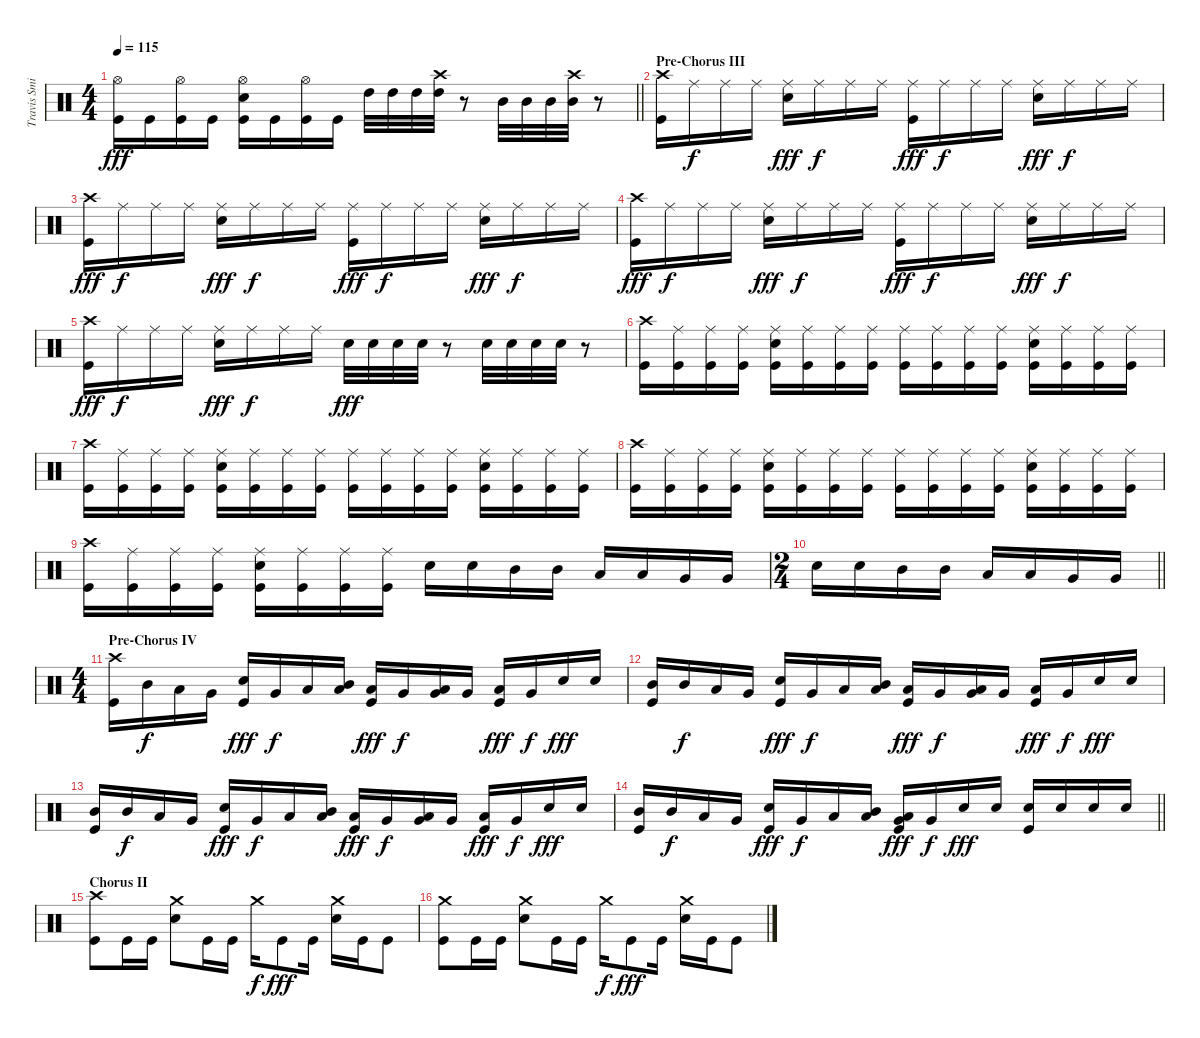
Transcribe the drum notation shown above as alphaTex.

\track ("Travis Smith" "Travis Smi") {instrument percussion}
\staff {score}
\articulation defaults
\ts (4 4)
\tempo 115
\clef neutral
\barLineRight lightlight
\ks c
("Hi-Hat (open)" "Kick (hit)").16{dy fff} "Kick (hit)".16 ("Hi-Hat (open)" "Kick (hit)").16 "Kick (hit)".16 ("Hi-Hat (open)" "Snare (hit) 2" "Kick (hit)").16 "Kick (hit)".16 ("Hi-Hat (open)" "Kick (hit)").16 "Kick (hit)".16 "High Tom (hit)".32 "High Tom (hit)".32 "High Tom (hit)".32 ("Crash high (hit)" "High Tom (hit)").32 r.8 "Mid Tom (hit)".32 "Mid Tom (hit)".32 "Mid Tom (hit)".32 ("Crash high (hit)" "Mid Tom (hit)").32 r.8 |
\section ("" "Pre-Chorus III")
("Crash high (hit)" "Kick (hit)").16 "Ride (middle)".16{dy f} "Ride (middle)".16 "Ride (middle)".16 ("Ride (middle)" "Snare (hit) 2").16{dy fff} "Ride (middle)".16{dy f} "Ride (middle)".16 "Ride (middle)".16 ("Ride (middle)" "Kick (hit)").16{dy fff} "Ride (middle)".16{dy f} "Ride (middle)".16 "Ride (middle)".16 ("Ride (middle)" "Snare (hit) 2").16{dy fff} "Ride (middle)".16{dy f} "Ride (middle)".16 "Ride (middle)".16 |
("Crash high (hit)" "Kick (hit)").16{dy fff} "Ride (middle)".16{dy f} "Ride (middle)".16 "Ride (middle)".16 ("Ride (middle)" "Snare (hit) 2").16{dy fff} "Ride (middle)".16{dy f} "Ride (middle)".16 "Ride (middle)".16 ("Ride (middle)" "Kick (hit)").16{dy fff} "Ride (middle)".16{dy f} "Ride (middle)".16 "Ride (middle)".16 ("Ride (middle)" "Snare (hit) 2").16{dy fff} "Ride (middle)".16{dy f} "Ride (middle)".16 "Ride (middle)".16 |
("Crash high (hit)" "Kick (hit)").16{dy fff} "Ride (middle)".16{dy f} "Ride (middle)".16 "Ride (middle)".16 ("Ride (middle)" "Snare (hit) 2").16{dy fff} "Ride (middle)".16{dy f} "Ride (middle)".16 "Ride (middle)".16 ("Ride (middle)" "Kick (hit)").16{dy fff} "Ride (middle)".16{dy f} "Ride (middle)".16 "Ride (middle)".16 ("Ride (middle)" "Snare (hit) 2").16{dy fff} "Ride (middle)".16{dy f} "Ride (middle)".16 "Ride (middle)".16 |
("Crash high (hit)" "Kick (hit)").16{dy fff} "Ride (middle)".16{dy f} "Ride (middle)".16 "Ride (middle)".16 ("Ride (middle)" "Snare (hit) 2").16{dy fff} "Ride (middle)".16{dy f} "Ride (middle)".16 "Ride (middle)".16 "Snare (hit) 2".32{dy fff} "Snare (hit) 2".32 "Snare (hit) 2".32 "Snare (hit) 2".32 r.8 "Snare (hit) 2".32 "Snare (hit) 2".32 "Snare (hit) 2".32 "Snare (hit) 2".32 r.8 |
("Crash high (hit)" "Kick (hit)").16 ("Ride (middle)" "Kick (hit)").16 ("Ride (middle)" "Kick (hit)").16 ("Ride (middle)" "Kick (hit)").16 ("Ride (middle)" "Snare (hit) 2" "Kick (hit)").16 ("Ride (middle)" "Kick (hit)").16 ("Ride (middle)" "Kick (hit)").16 ("Ride (middle)" "Kick (hit)").16 ("Ride (middle)" "Kick (hit)").16 ("Ride (middle)" "Kick (hit)").16 ("Ride (middle)" "Kick (hit)").16 ("Ride (middle)" "Kick (hit)").16 ("Ride (middle)" "Snare (hit) 2" "Kick (hit)").16 ("Ride (middle)" "Kick (hit)").16 ("Ride (middle)" "Kick (hit)").16 ("Ride (middle)" "Kick (hit)").16 |
("Crash high (hit)" "Kick (hit)").16 ("Ride (middle)" "Kick (hit)").16 ("Ride (middle)" "Kick (hit)").16 ("Ride (middle)" "Kick (hit)").16 ("Ride (middle)" "Snare (hit) 2" "Kick (hit)").16 ("Ride (middle)" "Kick (hit)").16 ("Ride (middle)" "Kick (hit)").16 ("Ride (middle)" "Kick (hit)").16 ("Ride (middle)" "Kick (hit)").16 ("Ride (middle)" "Kick (hit)").16 ("Ride (middle)" "Kick (hit)").16 ("Ride (middle)" "Kick (hit)").16 ("Ride (middle)" "Snare (hit) 2" "Kick (hit)").16 ("Ride (middle)" "Kick (hit)").16 ("Ride (middle)" "Kick (hit)").16 ("Ride (middle)" "Kick (hit)").16 |
("Crash high (hit)" "Kick (hit)").16 ("Ride (middle)" "Kick (hit)").16 ("Ride (middle)" "Kick (hit)").16 ("Ride (middle)" "Kick (hit)").16 ("Ride (middle)" "Snare (hit) 2" "Kick (hit)").16 ("Ride (middle)" "Kick (hit)").16 ("Ride (middle)" "Kick (hit)").16 ("Ride (middle)" "Kick (hit)").16 ("Ride (middle)" "Kick (hit)").16 ("Ride (middle)" "Kick (hit)").16 ("Ride (middle)" "Kick (hit)").16 ("Ride (middle)" "Kick (hit)").16 ("Ride (middle)" "Snare (hit) 2" "Kick (hit)").16 ("Ride (middle)" "Kick (hit)").16 ("Ride (middle)" "Kick (hit)").16 ("Ride (middle)" "Kick (hit)").16 |
("Crash high (hit)" "Kick (hit)").16 ("Ride (middle)" "Kick (hit)").16 ("Ride (middle)" "Kick (hit)").16 ("Ride (middle)" "Kick (hit)").16 ("Ride (middle)" "Snare (hit) 2" "Kick (hit)").16 ("Ride (middle)" "Kick (hit)").16 ("Ride (middle)" "Kick (hit)").16 ("Ride (middle)" "Kick (hit)").16 "Snare (hit) 2".16 "Snare (hit) 2".16 "Mid Tom (hit)".16 "Mid Tom (hit)".16 "Low Tom (hit)".16 "Low Tom (hit)".16 "Very Low Tom (hit)".16 "Very Low Tom (hit)".16 |
\ts (2 4)
\barLineRight lightlight "Snare (hit) 2".16 "Snare (hit) 2".16 "Mid Tom (hit)".16 "Mid Tom (hit)".16 "Low Tom (hit)".16 "Low Tom (hit)".16 "Very Low Tom (hit)".16 "Very Low Tom (hit)".16
|
\ts (4 4)
\section ("" "Pre-Chorus IV")
("Crash high (hit)" "Kick (hit)").16 "Mid Tom (hit)".16{dy f} "Low Tom (hit)".16 "Very Low Tom (hit)".16 ("Snare (hit) 2" "Kick (hit)").16{dy fff} "Very Low Tom (hit)".16{dy f} "Low Tom (hit)".16 ("Mid Tom (hit)" "Low Tom (hit)").16 ("Low Tom (hit)" "Kick (hit)").16{dy fff} "Very Low Tom (hit)".16{dy f} ("Low Tom (hit)" "Very Low Tom (hit)").16 "Very Low Tom (hit)".16 ("Low Tom (hit)" "Kick (hit)").16{dy fff} "Very Low Tom (hit)".16{dy f} "Snare (hit) 2".16{dy fff} "Snare (hit) 2".16 |
("Mid Tom (hit)" "Kick (hit)").16 "Mid Tom (hit)".16{dy f} "Low Tom (hit)".16 "Very Low Tom (hit)".16 ("Snare (hit) 2" "Kick (hit)").16{dy fff} "Very Low Tom (hit)".16{dy f} "Low Tom (hit)".16 ("Mid Tom (hit)" "Low Tom (hit)").16 ("Low Tom (hit)" "Kick (hit)").16{dy fff} "Very Low Tom (hit)".16{dy f} ("Low Tom (hit)" "Very Low Tom (hit)").16 "Very Low Tom (hit)".16 ("Low Tom (hit)" "Kick (hit)").16{dy fff} "Very Low Tom (hit)".16{dy f} "Snare (hit) 2".16{dy fff} "Snare (hit) 2".16 |
("Mid Tom (hit)" "Kick (hit)").16 "Mid Tom (hit)".16{dy f} "Low Tom (hit)".16 "Very Low Tom (hit)".16 ("Snare (hit) 2" "Kick (hit)").16{dy fff} "Very Low Tom (hit)".16{dy f} "Low Tom (hit)".16 ("Mid Tom (hit)" "Low Tom (hit)").16 ("Low Tom (hit)" "Kick (hit)").16{dy fff} "Very Low Tom (hit)".16{dy f} ("Low Tom (hit)" "Very Low Tom (hit)").16 "Very Low Tom (hit)".16 ("Low Tom (hit)" "Kick (hit)").16{dy fff} "Very Low Tom (hit)".16{dy f} "Snare (hit) 2".16{dy fff} "Snare (hit) 2".16 |
\barLineRight lightlight
("Mid Tom (hit)" "Kick (hit)").16 "Mid Tom (hit)".16{dy f} "Low Tom (hit)".16 "Very Low Tom (hit)".16 ("Snare (hit) 2" "Kick (hit)").16{dy fff} "Very Low Tom (hit)".16{dy f} "Low Tom (hit)".16 ("Mid Tom (hit)" "Low Tom (hit)").16 ("Low Tom (hit)" "Very Low Tom (hit)" "Kick (hit)").16{dy fff} "Very Low Tom (hit)".16{dy f} "Snare (hit) 2".16{dy fff} "Snare (hit) 2".16 ("Snare (hit) 2" "Kick (hit)").16 "Snare (hit) 2".16 "Snare (hit) 2".16 "Snare (hit) 2".16 |
\section ("" "Chorus II")
("Crash high (hit)" "Kick (hit)").8 "Kick (hit)".16 "Kick (hit)".16 ("Crash medium (hit)" "Snare (hit) 2").8 "Kick (hit)".16 "Kick (hit)".16 "Crash medium (hit)".16{dy f} "Kick (hit)".8{dy fff} "Kick (hit)".16 ("Crash medium (hit)" "Snare (hit) 2").16 "Kick (hit)".16 "Kick (hit)".8 |
("Crash medium (hit)" "Kick (hit)").8 "Kick (hit)".16 "Kick (hit)".16 ("Crash medium (hit)" "Snare (hit) 2").8 "Kick (hit)".16 "Kick (hit)".16 "Crash medium (hit)".16{dy f} "Kick (hit)".8{dy fff} "Kick (hit)".16 ("Crash medium (hit)" "Snare (hit) 2").16 "Kick (hit)".16 "Kick (hit)".8
